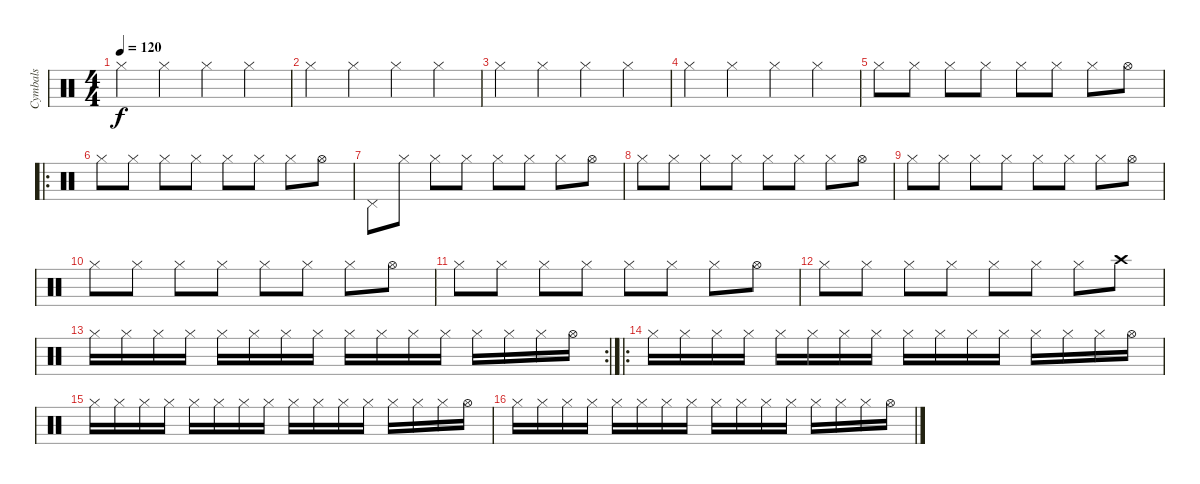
\track ("Cymbals" "Cymbals") {instrument percussion}
\staff {score}
\articulation defaults
\ts (4 4)
\tempo 120
\clef neutral
\ks c "Hi-Hat (closed)".4{dy f} "Hi-Hat (closed)".4 "Hi-Hat (closed)".4 "Hi-Hat (closed)".4
|
"Hi-Hat (closed)".4 "Hi-Hat (closed)".4 "Hi-Hat (closed)".4 "Hi-Hat (closed)".4 |
"Hi-Hat (closed)".4 "Hi-Hat (closed)".4 "Hi-Hat (closed)".4 "Hi-Hat (closed)".4 |
"Hi-Hat (closed)".4 "Hi-Hat (closed)".4 "Hi-Hat (closed)".4 "Hi-Hat (closed)".4 |
"Hi-Hat (closed)".8 "Hi-Hat (closed)".8 "Hi-Hat (closed)".8 "Hi-Hat (closed)".8 "Hi-Hat (closed)".8 "Hi-Hat (closed)".8 "Hi-Hat (closed)".8 "Hi-Hat (open)".8 |
\ro "Hi-Hat (closed)".8 "Hi-Hat (closed)".8 "Hi-Hat (closed)".8 "Hi-Hat (closed)".8 "Hi-Hat (closed)".8 "Hi-Hat (closed)".8 "Hi-Hat (closed)".8 "Hi-Hat (open)".8
|
"Pedal Hi-Hat (hit)".8 "Hi-Hat (closed)".8 "Hi-Hat (closed)".8 "Hi-Hat (closed)".8 "Hi-Hat (closed)".8 "Hi-Hat (closed)".8 "Hi-Hat (closed)".8 "Hi-Hat (open)".8 |
"Hi-Hat (closed)".8 "Hi-Hat (closed)".8 "Hi-Hat (closed)".8 "Hi-Hat (closed)".8 "Hi-Hat (closed)".8 "Hi-Hat (closed)".8 "Hi-Hat (closed)".8 "Hi-Hat (open)".8 |
"Hi-Hat (closed)".8 "Hi-Hat (closed)".8 "Hi-Hat (closed)".8 "Hi-Hat (closed)".8 "Hi-Hat (closed)".8 "Hi-Hat (closed)".8 "Hi-Hat (closed)".8 "Hi-Hat (open)".8 |
"Hi-Hat (closed)".8 "Hi-Hat (closed)".8 "Hi-Hat (closed)".8 "Hi-Hat (closed)".8 "Hi-Hat (closed)".8 "Hi-Hat (closed)".8 "Hi-Hat (closed)".8 "Hi-Hat (open)".8 |
"Hi-Hat (closed)".8 "Hi-Hat (closed)".8 "Hi-Hat (closed)".8 "Hi-Hat (closed)".8 "Hi-Hat (closed)".8 "Hi-Hat (closed)".8 "Hi-Hat (closed)".8 "Hi-Hat (open)".8 |
"Hi-Hat (closed)".8 "Hi-Hat (closed)".8 "Hi-Hat (closed)".8 "Hi-Hat (closed)".8 "Hi-Hat (closed)".8 "Hi-Hat (closed)".8 "Hi-Hat (closed)".8 "Crash high (hit)".8 |
\rc 2 "Hi-Hat (closed)".16 "Hi-Hat (closed)".16 "Hi-Hat (closed)".16 "Hi-Hat (closed)".16 "Hi-Hat (closed)".16 "Hi-Hat (closed)".16 "Hi-Hat (closed)".16 "Hi-Hat (closed)".16 "Hi-Hat (closed)".16 "Hi-Hat (closed)".16 "Hi-Hat (closed)".16 "Hi-Hat (closed)".16 "Hi-Hat (closed)".16 "Hi-Hat (closed)".16 "Hi-Hat (closed)".16 "Hi-Hat (open)".16
|
\ro "Hi-Hat (closed)".16 "Hi-Hat (closed)".16 "Hi-Hat (closed)".16 "Hi-Hat (closed)".16 "Hi-Hat (closed)".16 "Hi-Hat (closed)".16 "Hi-Hat (closed)".16 "Hi-Hat (closed)".16 "Hi-Hat (closed)".16 "Hi-Hat (closed)".16 "Hi-Hat (closed)".16 "Hi-Hat (closed)".16 "Hi-Hat (closed)".16 "Hi-Hat (closed)".16 "Hi-Hat (closed)".16 "Hi-Hat (open)".16
|
"Hi-Hat (closed)".16 "Hi-Hat (closed)".16 "Hi-Hat (closed)".16 "Hi-Hat (closed)".16 "Hi-Hat (closed)".16 "Hi-Hat (closed)".16 "Hi-Hat (closed)".16 "Hi-Hat (closed)".16 "Hi-Hat (closed)".16 "Hi-Hat (closed)".16 "Hi-Hat (closed)".16 "Hi-Hat (closed)".16 "Hi-Hat (closed)".16 "Hi-Hat (closed)".16 "Hi-Hat (closed)".16 "Hi-Hat (open)".16 |
"Hi-Hat (closed)".16 "Hi-Hat (closed)".16 "Hi-Hat (closed)".16 "Hi-Hat (closed)".16 "Hi-Hat (closed)".16 "Hi-Hat (closed)".16 "Hi-Hat (closed)".16 "Hi-Hat (closed)".16 "Hi-Hat (closed)".16 "Hi-Hat (closed)".16 "Hi-Hat (closed)".16 "Hi-Hat (closed)".16 "Hi-Hat (closed)".16 "Hi-Hat (closed)".16 "Hi-Hat (closed)".16 "Hi-Hat (open)".16
